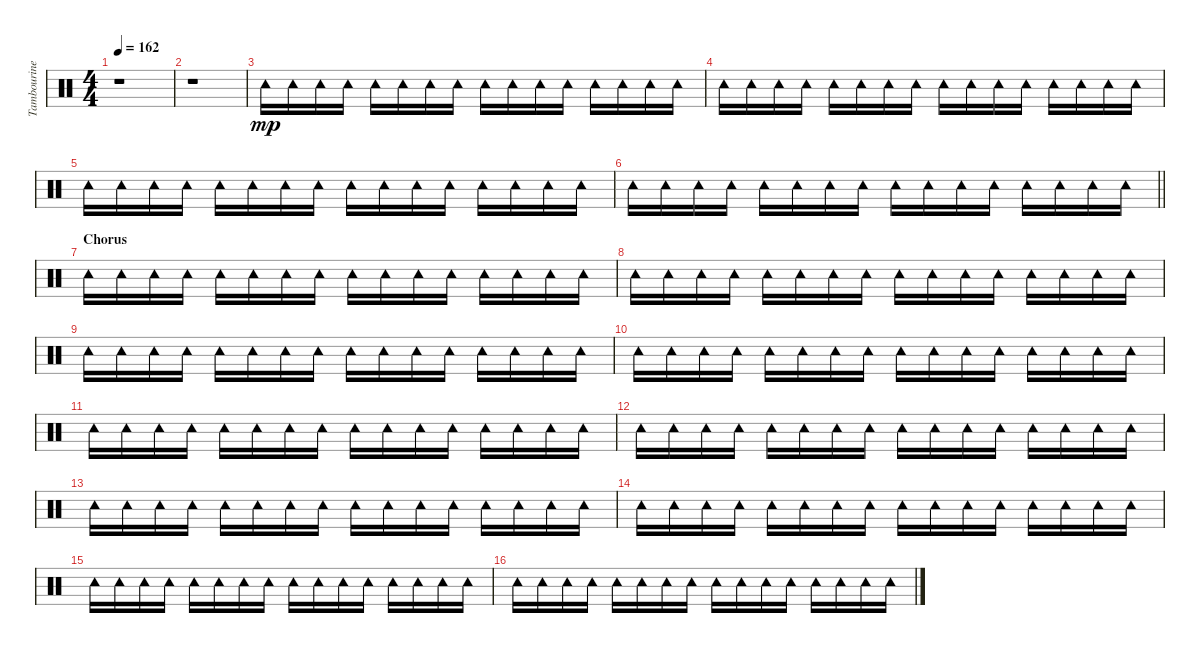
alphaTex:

\track ("Tambourine" "Tambourine") {instrument percussion}
\staff {score}
\articulation defaults
\ts (4 4)
\tempo 162
\clef neutral
\ks c
r.1{dy mp} |
r.1 |
"Tambourine (hit)".16 "Tambourine (hit)".16 "Tambourine (hit)".16 "Tambourine (hit)".16 "Tambourine (hit)".16 "Tambourine (hit)".16 "Tambourine (hit)".16 "Tambourine (hit)".16 "Tambourine (hit)".16 "Tambourine (hit)".16 "Tambourine (hit)".16 "Tambourine (hit)".16 "Tambourine (hit)".16 "Tambourine (hit)".16 "Tambourine (hit)".16 "Tambourine (hit)".16 |
"Tambourine (hit)".16 "Tambourine (hit)".16 "Tambourine (hit)".16 "Tambourine (hit)".16 "Tambourine (hit)".16 "Tambourine (hit)".16 "Tambourine (hit)".16 "Tambourine (hit)".16 "Tambourine (hit)".16 "Tambourine (hit)".16 "Tambourine (hit)".16 "Tambourine (hit)".16 "Tambourine (hit)".16 "Tambourine (hit)".16 "Tambourine (hit)".16 "Tambourine (hit)".16 |
"Tambourine (hit)".16 "Tambourine (hit)".16 "Tambourine (hit)".16 "Tambourine (hit)".16 "Tambourine (hit)".16 "Tambourine (hit)".16 "Tambourine (hit)".16 "Tambourine (hit)".16 "Tambourine (hit)".16 "Tambourine (hit)".16 "Tambourine (hit)".16 "Tambourine (hit)".16 "Tambourine (hit)".16 "Tambourine (hit)".16 "Tambourine (hit)".16 "Tambourine (hit)".16 |
\barLineRight lightlight "Tambourine (hit)".16 "Tambourine (hit)".16 "Tambourine (hit)".16 "Tambourine (hit)".16 "Tambourine (hit)".16 "Tambourine (hit)".16 "Tambourine (hit)".16 "Tambourine (hit)".16 "Tambourine (hit)".16 "Tambourine (hit)".16 "Tambourine (hit)".16 "Tambourine (hit)".16 "Tambourine (hit)".16 "Tambourine (hit)".16 "Tambourine (hit)".16 "Tambourine (hit)".16
|
\section ("" "Chorus")
"Tambourine (hit)".16 "Tambourine (hit)".16 "Tambourine (hit)".16 "Tambourine (hit)".16 "Tambourine (hit)".16 "Tambourine (hit)".16 "Tambourine (hit)".16 "Tambourine (hit)".16 "Tambourine (hit)".16 "Tambourine (hit)".16 "Tambourine (hit)".16 "Tambourine (hit)".16 "Tambourine (hit)".16 "Tambourine (hit)".16 "Tambourine (hit)".16 "Tambourine (hit)".16 |
"Tambourine (hit)".16 "Tambourine (hit)".16 "Tambourine (hit)".16 "Tambourine (hit)".16 "Tambourine (hit)".16 "Tambourine (hit)".16 "Tambourine (hit)".16 "Tambourine (hit)".16 "Tambourine (hit)".16 "Tambourine (hit)".16 "Tambourine (hit)".16 "Tambourine (hit)".16 "Tambourine (hit)".16 "Tambourine (hit)".16 "Tambourine (hit)".16 "Tambourine (hit)".16 |
"Tambourine (hit)".16 "Tambourine (hit)".16 "Tambourine (hit)".16 "Tambourine (hit)".16 "Tambourine (hit)".16 "Tambourine (hit)".16 "Tambourine (hit)".16 "Tambourine (hit)".16 "Tambourine (hit)".16 "Tambourine (hit)".16 "Tambourine (hit)".16 "Tambourine (hit)".16 "Tambourine (hit)".16 "Tambourine (hit)".16 "Tambourine (hit)".16 "Tambourine (hit)".16 |
"Tambourine (hit)".16 "Tambourine (hit)".16 "Tambourine (hit)".16 "Tambourine (hit)".16 "Tambourine (hit)".16 "Tambourine (hit)".16 "Tambourine (hit)".16 "Tambourine (hit)".16 "Tambourine (hit)".16 "Tambourine (hit)".16 "Tambourine (hit)".16 "Tambourine (hit)".16 "Tambourine (hit)".16 "Tambourine (hit)".16 "Tambourine (hit)".16 "Tambourine (hit)".16 |
"Tambourine (hit)".16 "Tambourine (hit)".16 "Tambourine (hit)".16 "Tambourine (hit)".16 "Tambourine (hit)".16 "Tambourine (hit)".16 "Tambourine (hit)".16 "Tambourine (hit)".16 "Tambourine (hit)".16 "Tambourine (hit)".16 "Tambourine (hit)".16 "Tambourine (hit)".16 "Tambourine (hit)".16 "Tambourine (hit)".16 "Tambourine (hit)".16 "Tambourine (hit)".16 |
"Tambourine (hit)".16 "Tambourine (hit)".16 "Tambourine (hit)".16 "Tambourine (hit)".16 "Tambourine (hit)".16 "Tambourine (hit)".16 "Tambourine (hit)".16 "Tambourine (hit)".16 "Tambourine (hit)".16 "Tambourine (hit)".16 "Tambourine (hit)".16 "Tambourine (hit)".16 "Tambourine (hit)".16 "Tambourine (hit)".16 "Tambourine (hit)".16 "Tambourine (hit)".16 |
"Tambourine (hit)".16 "Tambourine (hit)".16 "Tambourine (hit)".16 "Tambourine (hit)".16 "Tambourine (hit)".16 "Tambourine (hit)".16 "Tambourine (hit)".16 "Tambourine (hit)".16 "Tambourine (hit)".16 "Tambourine (hit)".16 "Tambourine (hit)".16 "Tambourine (hit)".16 "Tambourine (hit)".16 "Tambourine (hit)".16 "Tambourine (hit)".16 "Tambourine (hit)".16 |
"Tambourine (hit)".16 "Tambourine (hit)".16 "Tambourine (hit)".16 "Tambourine (hit)".16 "Tambourine (hit)".16 "Tambourine (hit)".16 "Tambourine (hit)".16 "Tambourine (hit)".16 "Tambourine (hit)".16 "Tambourine (hit)".16 "Tambourine (hit)".16 "Tambourine (hit)".16 "Tambourine (hit)".16 "Tambourine (hit)".16 "Tambourine (hit)".16 "Tambourine (hit)".16 |
"Tambourine (hit)".16 "Tambourine (hit)".16 "Tambourine (hit)".16 "Tambourine (hit)".16 "Tambourine (hit)".16 "Tambourine (hit)".16 "Tambourine (hit)".16 "Tambourine (hit)".16 "Tambourine (hit)".16 "Tambourine (hit)".16 "Tambourine (hit)".16 "Tambourine (hit)".16 "Tambourine (hit)".16 "Tambourine (hit)".16 "Tambourine (hit)".16 "Tambourine (hit)".16 |
"Tambourine (hit)".16 "Tambourine (hit)".16 "Tambourine (hit)".16 "Tambourine (hit)".16 "Tambourine (hit)".16 "Tambourine (hit)".16 "Tambourine (hit)".16 "Tambourine (hit)".16 "Tambourine (hit)".16 "Tambourine (hit)".16 "Tambourine (hit)".16 "Tambourine (hit)".16 "Tambourine (hit)".16 "Tambourine (hit)".16 "Tambourine (hit)".16 "Tambourine (hit)".16
